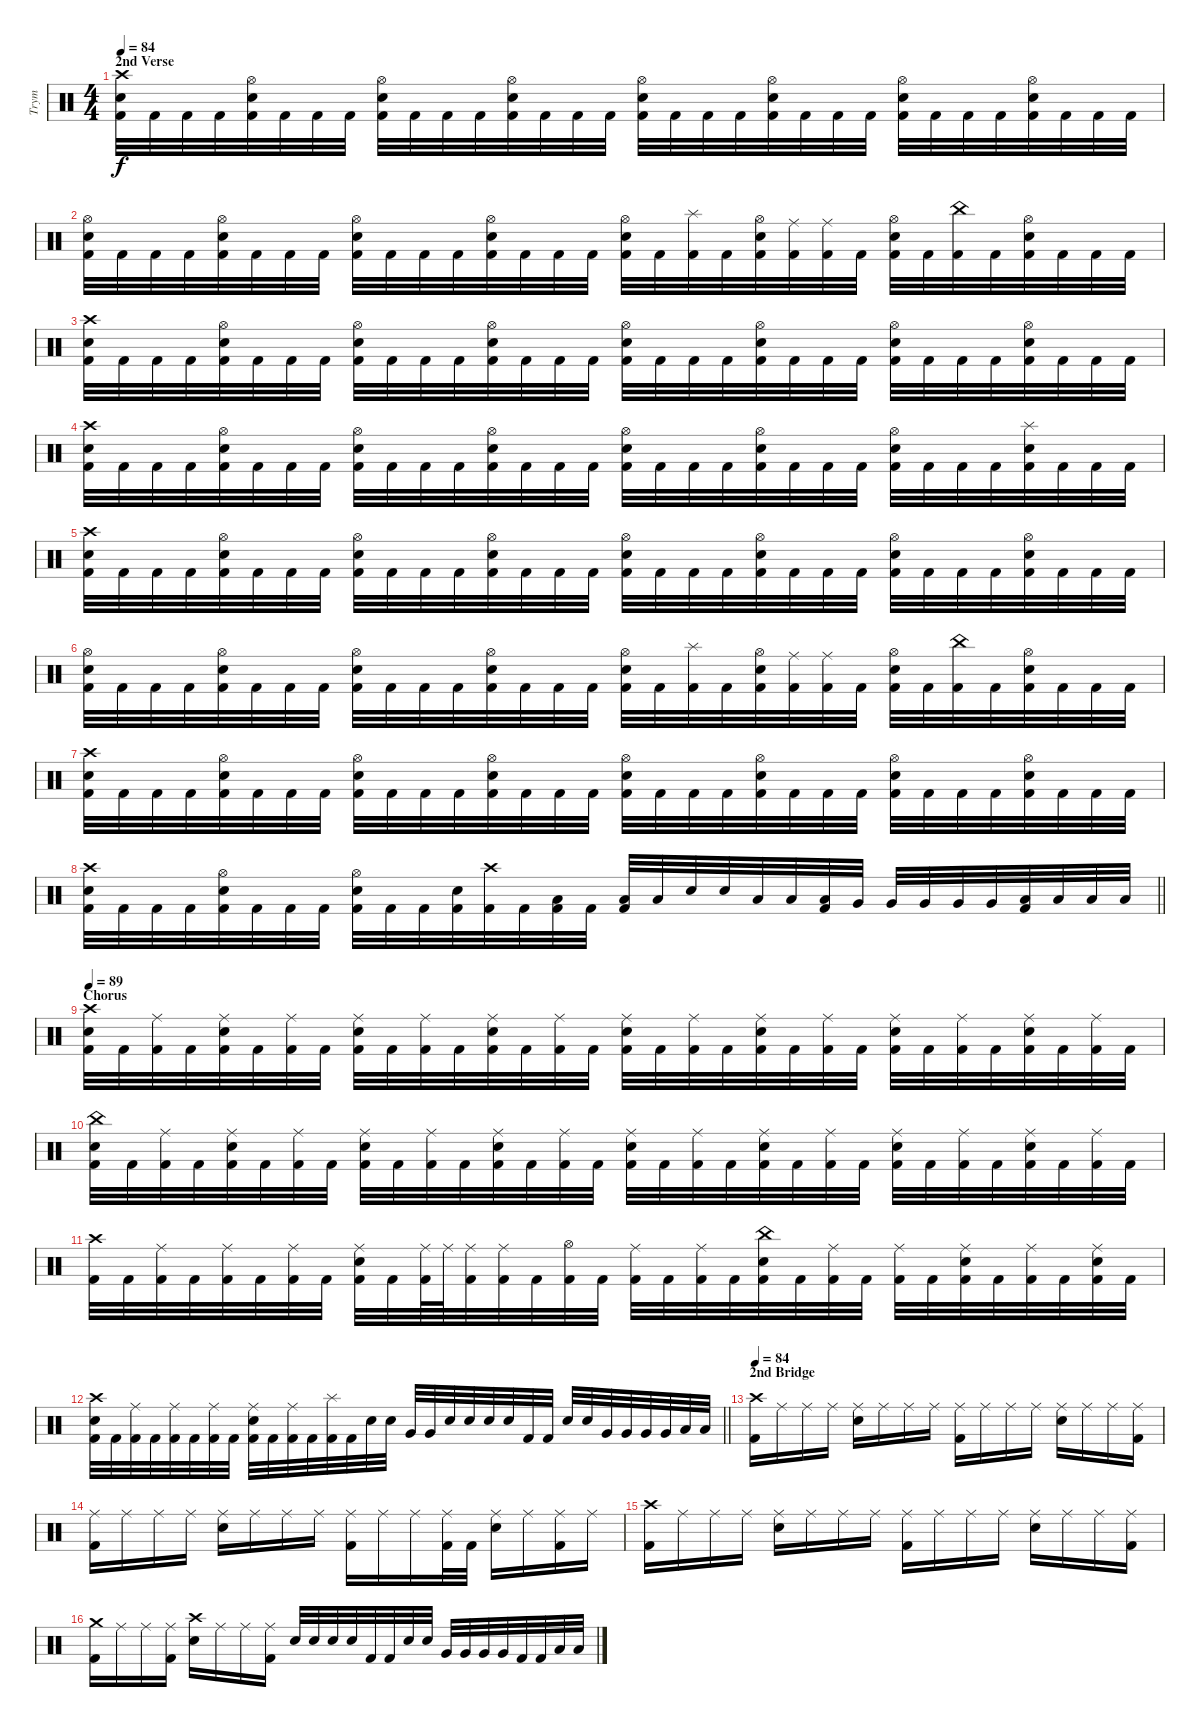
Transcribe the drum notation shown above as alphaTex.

\track ("Trym" "Trym") {instrument percussion}
\staff {score}
\articulation defaults
\ts (4 4)
\section ("" "2nd Verse")
\tempo 84
\clef neutral
\ks c
("Crash high (hit)" "Snare (hit) 2" "Kick (hit) 2").32{dy f} "Kick (hit) 2".32 "Kick (hit) 2".32 "Kick (hit) 2".32 ("Hi-Hat (open)" "Snare (hit) 2" "Kick (hit) 2").32 "Kick (hit) 2".32 "Kick (hit) 2".32 "Kick (hit) 2".32 ("Hi-Hat (open)" "Snare (hit) 2" "Kick (hit) 2").32 "Kick (hit) 2".32 "Kick (hit) 2".32 "Kick (hit) 2".32 ("Hi-Hat (open)" "Snare (hit) 2" "Kick (hit) 2").32 "Kick (hit) 2".32 "Kick (hit) 2".32 "Kick (hit) 2".32 ("Hi-Hat (open)" "Snare (hit) 2" "Kick (hit) 2").32 "Kick (hit) 2".32 "Kick (hit) 2".32 "Kick (hit) 2".32 ("Hi-Hat (open)" "Snare (hit) 2" "Kick (hit) 2").32 "Kick (hit) 2".32 "Kick (hit) 2".32 "Kick (hit) 2".32 ("Hi-Hat (open)" "Snare (hit) 2" "Kick (hit) 2").32 "Kick (hit) 2".32 "Kick (hit) 2".32 "Kick (hit) 2".32 ("Hi-Hat (open)" "Snare (hit) 2" "Kick (hit) 2").32 "Kick (hit) 2".32 "Kick (hit) 2".32 "Kick (hit) 2".32 |
("Hi-Hat (open)" "Snare (hit) 2" "Kick (hit) 2").32 "Kick (hit) 2".32 "Kick (hit) 2".32 "Kick (hit) 2".32 ("Hi-Hat (open)" "Snare (hit) 2" "Kick (hit) 2").32 "Kick (hit) 2".32 "Kick (hit) 2".32 "Kick (hit) 2".32 ("Hi-Hat (open)" "Snare (hit) 2" "Kick (hit) 2").32 "Kick (hit) 2".32 "Kick (hit) 2".32 "Kick (hit) 2".32 ("Hi-Hat (open)" "Snare (hit) 2" "Kick (hit) 2").32 "Kick (hit) 2".32 "Kick (hit) 2".32 "Kick (hit) 2".32 ("Hi-Hat (open)" "Snare (hit) 2" "Kick (hit) 2").32 "Kick (hit) 2".32 ("Splash (hit)" "Kick (hit) 2").32 "Kick (hit) 2".32 ("Hi-Hat (open)" "Snare (hit) 2" "Kick (hit) 2").32 ("Ride (middle)" "Kick (hit) 2").32 ("Ride (middle)" "Kick (hit) 2").32 "Kick (hit) 2".32 ("Hi-Hat (open)" "Snare (hit) 2" "Kick (hit) 2").32 "Kick (hit) 2".32 ("China (hit)" "Kick (hit) 2").32 "Kick (hit) 2".32 ("Hi-Hat (open)" "Snare (hit) 2" "Kick (hit) 2").32 "Kick (hit) 2".32 "Kick (hit) 2".32 "Kick (hit) 2".32 |
("Crash high (hit)" "Snare (hit) 2" "Kick (hit) 2").32 "Kick (hit) 2".32 "Kick (hit) 2".32 "Kick (hit) 2".32 ("Hi-Hat (open)" "Snare (hit) 2" "Kick (hit) 2").32 "Kick (hit) 2".32 "Kick (hit) 2".32 "Kick (hit) 2".32 ("Hi-Hat (open)" "Snare (hit) 2" "Kick (hit) 2").32 "Kick (hit) 2".32 "Kick (hit) 2".32 "Kick (hit) 2".32 ("Hi-Hat (open)" "Snare (hit) 2" "Kick (hit) 2").32 "Kick (hit) 2".32 "Kick (hit) 2".32 "Kick (hit) 2".32 ("Hi-Hat (open)" "Snare (hit) 2" "Kick (hit) 2").32 "Kick (hit) 2".32 "Kick (hit) 2".32 "Kick (hit) 2".32 ("Hi-Hat (open)" "Snare (hit) 2" "Kick (hit) 2").32 "Kick (hit) 2".32 "Kick (hit) 2".32 "Kick (hit) 2".32 ("Hi-Hat (open)" "Snare (hit) 2" "Kick (hit) 2").32 "Kick (hit) 2".32 "Kick (hit) 2".32 "Kick (hit) 2".32 ("Hi-Hat (open)" "Snare (hit) 2" "Kick (hit) 2").32 "Kick (hit) 2".32 "Kick (hit) 2".32 "Kick (hit) 2".32 |
("Crash high (hit)" "Snare (hit) 2" "Kick (hit) 2").32 "Kick (hit) 2".32 "Kick (hit) 2".32 "Kick (hit) 2".32 ("Hi-Hat (open)" "Snare (hit) 2" "Kick (hit) 2").32 "Kick (hit) 2".32 "Kick (hit) 2".32 "Kick (hit) 2".32 ("Hi-Hat (open)" "Snare (hit) 2" "Kick (hit) 2").32 "Kick (hit) 2".32 "Kick (hit) 2".32 "Kick (hit) 2".32 ("Hi-Hat (open)" "Snare (hit) 2" "Kick (hit) 2").32 "Kick (hit) 2".32 "Kick (hit) 2".32 "Kick (hit) 2".32 ("Hi-Hat (open)" "Snare (hit) 2" "Kick (hit) 2").32 "Kick (hit) 2".32 "Kick (hit) 2".32 "Kick (hit) 2".32 ("Hi-Hat (open)" "Snare (hit) 2" "Kick (hit) 2").32 "Kick (hit) 2".32 "Kick (hit) 2".32 "Kick (hit) 2".32 ("Hi-Hat (open)" "Snare (hit) 2" "Kick (hit) 2").32 "Kick (hit) 2".32 "Kick (hit) 2".32 "Kick (hit) 2".32 ("Splash (hit)" "Snare (hit) 2" "Kick (hit) 2").32 "Kick (hit) 2".32 "Kick (hit) 2".32 "Kick (hit) 2".32 |
("Crash high (hit)" "Snare (hit) 2" "Kick (hit) 2").32 "Kick (hit) 2".32 "Kick (hit) 2".32 "Kick (hit) 2".32 ("Hi-Hat (open)" "Snare (hit) 2" "Kick (hit) 2").32 "Kick (hit) 2".32 "Kick (hit) 2".32 "Kick (hit) 2".32 ("Hi-Hat (open)" "Snare (hit) 2" "Kick (hit) 2").32 "Kick (hit) 2".32 "Kick (hit) 2".32 "Kick (hit) 2".32 ("Hi-Hat (open)" "Snare (hit) 2" "Kick (hit) 2").32 "Kick (hit) 2".32 "Kick (hit) 2".32 "Kick (hit) 2".32 ("Hi-Hat (open)" "Snare (hit) 2" "Kick (hit) 2").32 "Kick (hit) 2".32 "Kick (hit) 2".32 "Kick (hit) 2".32 ("Hi-Hat (open)" "Snare (hit) 2" "Kick (hit) 2").32 "Kick (hit) 2".32 "Kick (hit) 2".32 "Kick (hit) 2".32 ("Hi-Hat (open)" "Snare (hit) 2" "Kick (hit) 2").32 "Kick (hit) 2".32 "Kick (hit) 2".32 "Kick (hit) 2".32 ("Hi-Hat (open)" "Snare (hit) 2" "Kick (hit) 2").32 "Kick (hit) 2".32 "Kick (hit) 2".32 "Kick (hit) 2".32 |
("Hi-Hat (open)" "Snare (hit) 2" "Kick (hit) 2").32 "Kick (hit) 2".32 "Kick (hit) 2".32 "Kick (hit) 2".32 ("Hi-Hat (open)" "Snare (hit) 2" "Kick (hit) 2").32 "Kick (hit) 2".32 "Kick (hit) 2".32 "Kick (hit) 2".32 ("Hi-Hat (open)" "Snare (hit) 2" "Kick (hit) 2").32 "Kick (hit) 2".32 "Kick (hit) 2".32 "Kick (hit) 2".32 ("Hi-Hat (open)" "Snare (hit) 2" "Kick (hit) 2").32 "Kick (hit) 2".32 "Kick (hit) 2".32 "Kick (hit) 2".32 ("Hi-Hat (open)" "Snare (hit) 2" "Kick (hit) 2").32 "Kick (hit) 2".32 ("Splash (hit)" "Kick (hit) 2").32 "Kick (hit) 2".32 ("Hi-Hat (open)" "Snare (hit) 2" "Kick (hit) 2").32 ("Ride (middle)" "Kick (hit) 2").32 ("Ride (middle)" "Kick (hit) 2").32 "Kick (hit) 2".32 ("Hi-Hat (open)" "Snare (hit) 2" "Kick (hit) 2").32 "Kick (hit) 2".32 ("China (hit)" "Kick (hit) 2").32 "Kick (hit) 2".32 ("Hi-Hat (open)" "Snare (hit) 2" "Kick (hit) 2").32 "Kick (hit) 2".32 "Kick (hit) 2".32 "Kick (hit) 2".32 |
("Crash high (hit)" "Snare (hit) 2" "Kick (hit) 2").32 "Kick (hit) 2".32 "Kick (hit) 2".32 "Kick (hit) 2".32 ("Hi-Hat (open)" "Snare (hit) 2" "Kick (hit) 2").32 "Kick (hit) 2".32 "Kick (hit) 2".32 "Kick (hit) 2".32 ("Hi-Hat (open)" "Snare (hit) 2" "Kick (hit) 2").32 "Kick (hit) 2".32 "Kick (hit) 2".32 "Kick (hit) 2".32 ("Hi-Hat (open)" "Snare (hit) 2" "Kick (hit) 2").32 "Kick (hit) 2".32 "Kick (hit) 2".32 "Kick (hit) 2".32 ("Hi-Hat (open)" "Snare (hit) 2" "Kick (hit) 2").32 "Kick (hit) 2".32 "Kick (hit) 2".32 "Kick (hit) 2".32 ("Hi-Hat (open)" "Snare (hit) 2" "Kick (hit) 2").32 "Kick (hit) 2".32 "Kick (hit) 2".32 "Kick (hit) 2".32 ("Hi-Hat (open)" "Snare (hit) 2" "Kick (hit) 2").32 "Kick (hit) 2".32 "Kick (hit) 2".32 "Kick (hit) 2".32 ("Hi-Hat (open)" "Snare (hit) 2" "Kick (hit) 2").32 "Kick (hit) 2".32 "Kick (hit) 2".32 "Kick (hit) 2".32 |
\barLineRight lightlight
("Crash high (hit)" "Snare (hit) 2" "Kick (hit) 2").32 "Kick (hit) 2".32 "Kick (hit) 2".32 "Kick (hit) 2".32 ("Hi-Hat (open)" "Snare (hit) 2" "Kick (hit) 2").32 "Kick (hit) 2".32 "Kick (hit) 2".32 "Kick (hit) 2".32 ("Hi-Hat (open)" "Snare (hit) 2" "Kick (hit) 2").32 "Kick (hit) 2".32 "Kick (hit) 2".32 ("Snare (hit) 2" "Kick (hit) 2").32 ("Crash high (hit)" "Kick (hit) 2").32 "Kick (hit) 2".32 ("Low Floor Tom (hit)" "Kick (hit) 2").32 "Kick (hit) 2".32 ("Low Tom (hit)" "Kick (hit) 2").32 "Low Tom (hit)".32 "Snare (hit) 2".32 "Snare (hit) 2".32 "Low Tom (hit)".32 "Low Tom (hit)".32 ("Low Tom (hit)" "Kick (hit) 2").32 "Very Low Tom (hit)".32 "Very Low Tom (hit)".32 "Very Low Tom (hit)".32 "Very Low Tom (hit)".32 "Very Low Tom (hit)".32 ("Low Floor Tom (hit)" "Kick (hit) 2").32 "Low Floor Tom (hit)".32 "Low Floor Tom (hit)".32 "Low Floor Tom (hit)".32 |
\section ("" "Chorus")
\tempo 89
("Crash high (hit)" "Snare (hit) 2" "Kick (hit) 2").32 "Kick (hit) 2".32 ("Ride (middle)" "Kick (hit) 2").32 "Kick (hit) 2".32 ("Ride (middle)" "Snare (hit) 2" "Kick (hit) 2").32 "Kick (hit) 2".32 ("Ride (middle)" "Kick (hit) 2").32 "Kick (hit) 2".32 ("Ride (middle)" "Snare (hit) 2" "Kick (hit) 2").32 "Kick (hit) 2".32 ("Ride (middle)" "Kick (hit) 2").32 "Kick (hit) 2".32 ("Ride (middle)" "Snare (hit) 2" "Kick (hit) 2").32 "Kick (hit) 2".32 ("Ride (middle)" "Kick (hit) 2").32 "Kick (hit) 2".32 ("Ride (middle)" "Snare (hit) 2" "Kick (hit) 2").32 "Kick (hit) 2".32 ("Ride (middle)" "Kick (hit) 2").32 "Kick (hit) 2".32 ("Ride (middle)" "Snare (hit) 2" "Kick (hit) 2").32 "Kick (hit) 2".32 ("Ride (middle)" "Kick (hit) 2").32 "Kick (hit) 2".32 ("Ride (middle)" "Snare (hit) 2" "Kick (hit) 2").32 "Kick (hit) 2".32 ("Ride (middle)" "Kick (hit) 2").32 "Kick (hit) 2".32 ("Ride (middle)" "Snare (hit) 2" "Kick (hit) 2").32 "Kick (hit) 2".32 ("Ride (middle)" "Kick (hit) 2").32 "Kick (hit) 2".32 |
("China (hit)" "Snare (hit) 2" "Kick (hit) 2").32 "Kick (hit) 2".32 ("Ride (middle)" "Kick (hit) 2").32 "Kick (hit) 2".32 ("Ride (middle)" "Snare (hit) 2" "Kick (hit) 2").32 "Kick (hit) 2".32 ("Ride (middle)" "Kick (hit) 2").32 "Kick (hit) 2".32 ("Ride (middle)" "Snare (hit) 2" "Kick (hit) 2").32 "Kick (hit) 2".32 ("Ride (middle)" "Kick (hit) 2").32 "Kick (hit) 2".32 ("Ride (middle)" "Snare (hit) 2" "Kick (hit) 2").32 "Kick (hit) 2".32 ("Ride (middle)" "Kick (hit) 2").32 "Kick (hit) 2".32 ("Ride (middle)" "Snare (hit) 2" "Kick (hit) 2").32 "Kick (hit) 2".32 ("Ride (middle)" "Kick (hit) 2").32 "Kick (hit) 2".32 ("Ride (middle)" "Snare (hit) 2" "Kick (hit) 2").32 "Kick (hit) 2".32 ("Ride (middle)" "Kick (hit) 2").32 "Kick (hit) 2".32 ("Ride (middle)" "Snare (hit) 2" "Kick (hit) 2").32 "Kick (hit) 2".32 ("Ride (middle)" "Kick (hit) 2").32 "Kick (hit) 2".32 ("Ride (middle)" "Snare (hit) 2" "Kick (hit) 2").32 "Kick (hit) 2".32 ("Ride (middle)" "Kick (hit) 2").32 "Kick (hit) 2".32 |
("Crash high (hit)" "Kick (hit) 2").32 "Kick (hit) 2".32 ("Ride (middle)" "Kick (hit) 2").32 "Kick (hit) 2".32 ("Ride (middle)" "Kick (hit) 2").32 "Kick (hit) 2".32 ("Ride (middle)" "Kick (hit) 2").32 "Kick (hit) 2".32 ("Ride (middle)" "Snare (hit) 2" "Kick (hit) 2").32 "Kick (hit) 2".32 ("Ride (middle)" "Kick (hit) 2").64 "Ride (middle)".64 ("Ride (middle)" "Kick (hit) 2").32 ("Ride (middle)" "Kick (hit) 2").32 "Kick (hit) 2".32 ("Hi-Hat (open)" "Kick (hit) 2").32 "Kick (hit) 2".32 ("Ride (middle)" "Kick (hit) 2").32 "Kick (hit) 2".32 ("Ride (middle)" "Kick (hit) 2").32 "Kick (hit) 2".32 ("China (hit)" "Snare (hit) 2" "Kick (hit) 2").32 "Kick (hit) 2".32 ("Ride (middle)" "Kick (hit) 2").32 "Kick (hit) 2".32 ("Ride (middle)" "Kick (hit) 2").32 "Kick (hit) 2".32 ("Ride (middle)" "Snare (hit) 2" "Kick (hit) 2").32 "Kick (hit) 2".32 ("Ride (middle)" "Kick (hit) 2").32 "Kick (hit) 2".32 ("Ride (middle)" "Snare (hit) 2" "Kick (hit) 2").32 "Kick (hit) 2".32 |
\barLineRight lightlight
("Crash high (hit)" "Snare (hit) 2" "Kick (hit) 2").32 "Kick (hit) 2".32 ("Ride (middle)" "Kick (hit) 2").32 "Kick (hit) 2".32 ("Ride (middle)" "Kick (hit) 2").32 "Kick (hit) 2".32 ("Ride (middle)" "Kick (hit) 2").32 "Kick (hit) 2".32 ("Ride (middle)" "Snare (hit) 2" "Kick (hit) 2").32 "Kick (hit) 2".32 ("Ride (middle)" "Kick (hit) 2").32 "Kick (hit) 2".32 ("Splash (hit)" "Kick (hit) 2").32 "Kick (hit) 2".32 "Snare (hit) 2".32 "Snare (hit) 2".32 "Very Low Tom (hit)".32 "Very Low Tom (hit)".32 "Snare (hit) 2".32 "Snare (hit) 2".32 "Snare (hit) 2".32 "Snare (hit) 2".32 "Kick (hit) 2".32 "Kick (hit) 2".32 "Snare (hit) 2".32 "Snare (hit) 2".32 "Very Low Tom (hit)".32 "Very Low Tom (hit)".32 "Very Low Tom (hit)".32 "Very Low Tom (hit)".32 "Low Floor Tom (hit)".32 "Low Floor Tom (hit)".32 |
\section ("" "2nd Bridge")
\tempo 84
("Crash high (hit)" "Kick (hit) 2").16 "Ride (middle)".16 "Ride (middle)".16 "Ride (middle)".16 ("Ride (middle)" "Snare (hit) 2").16 "Ride (middle)".16 "Ride (middle)".16 "Ride (middle)".16 ("Ride (middle)" "Kick (hit) 2").16 "Ride (middle)".16 "Ride (middle)".16 "Ride (middle)".16 ("Ride (middle)" "Snare (hit) 2").16 "Ride (middle)".16 "Ride (middle)".16 ("Ride (middle)" "Kick (hit) 2").16 |
("Ride (middle)" "Kick (hit) 2").16 "Ride (middle)".16 "Ride (middle)".16 "Ride (middle)".16 ("Ride (middle)" "Snare (hit) 2").16 "Ride (middle)".16 "Ride (middle)".16 "Ride (middle)".16 ("Ride (middle)" "Kick (hit) 2").16 "Ride (middle)".16 "Ride (middle)".16 ("Ride (middle)" "Kick (hit) 2").32 "Kick (hit) 2".32 ("Ride (middle)" "Snare (hit) 2").16 "Ride (middle)".16 ("Ride (middle)" "Kick (hit) 2").16 "Ride (middle)".16 |
("Crash high (hit)" "Kick (hit) 2").16 "Ride (middle)".16 "Ride (middle)".16 "Ride (middle)".16 ("Ride (middle)" "Snare (hit) 2").16 "Ride (middle)".16 "Ride (middle)".16 "Ride (middle)".16 ("Ride (middle)" "Kick (hit) 2").16 "Ride (middle)".16 "Ride (middle)".16 "Ride (middle)".16 ("Ride (middle)" "Snare (hit) 2").16 "Ride (middle)".16 "Ride (middle)".16 ("Ride (middle)" "Kick (hit) 2").16 |
("Crash medium (hit)" "Kick (hit) 2").16 "Ride (middle)".16 "Ride (middle)".16 ("Ride (middle)" "Kick (hit) 2").16 ("Crash high (hit)" "Snare (hit) 2").16 "Ride (middle)".16 "Ride (middle)".16 ("Ride (middle)" "Kick (hit) 2").16 "Snare (hit) 2".32 "Snare (hit) 2".32 "Snare (hit) 2".32 "Snare (hit) 2".32 "Kick (hit) 2".32 "Kick (hit) 2".32 "Snare (hit) 2".32 "Snare (hit) 2".32 "Very Low Tom (hit)".32 "Very Low Tom (hit)".32 "Very Low Tom (hit)".32 "Very Low Tom (hit)".32 "Kick (hit) 2".32 "Kick (hit) 2".32 "Low Floor Tom (hit)".32 "Low Floor Tom (hit)".32
